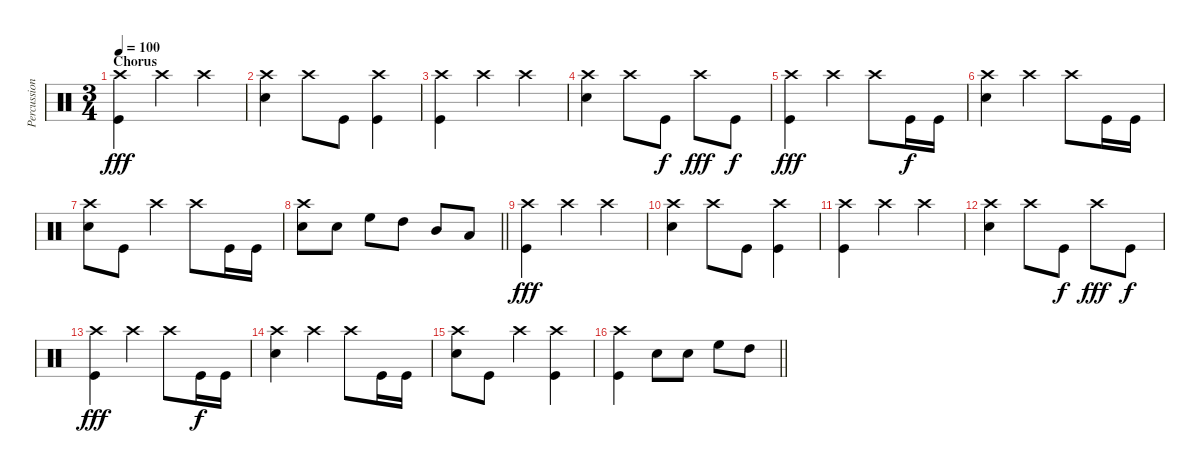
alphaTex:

\track ("Percussion" "Percussion") {instrument percussion}
\staff {score}
\articulation defaults
\ts (3 4)
\section ("" "Chorus")
\tempo 100
\clef neutral
\ks aminor
("Crash high (hit)" "Kick (hit)").4{dy fff} "Crash high (hit)".4 "Crash high (hit)".4 |
("Crash high (hit)" "Snare (hit) 2").4 "Crash high (hit)".8 "Kick (hit)".8 ("Crash high (hit)" "Kick (hit)").4 |
("Crash high (hit)" "Kick (hit)").4 "Crash high (hit)".4 "Crash high (hit)".4 |
("Crash high (hit)" "Snare (hit) 2").4 "Crash high (hit)".8 "Kick (hit)".8{dy f} "Crash high (hit)".8{dy fff} "Kick (hit)".8{dy f} |
("Crash high (hit)" "Kick (hit)").4{dy fff} "Crash high (hit)".4 "Crash high (hit)".8 "Kick (hit)".16{dy f} "Kick (hit)".16 |
("Crash high (hit)" "Snare (hit) 2").4 "Crash high (hit)".4 "Crash high (hit)".8 "Kick (hit)".16 "Kick (hit)".16 |
("Crash high (hit)" "Snare (hit) 2").8 "Kick (hit)".8 "Crash high (hit)".4 "Crash high (hit)".8 "Kick (hit)".16 "Kick (hit)".16 |
\barLineRight lightlight
("Crash high (hit)" "Snare (hit) 2").8 "Snare (hit) 2".8 "High Floor Tom (hit)".8 "High Tom (hit)".8 "Mid Tom (hit)".8 "Low Tom (hit)".8 |
\section ("" "")
("Crash high (hit)" "Kick (hit)").4{dy fff} "Crash high (hit)".4 "Crash high (hit)".4 |
("Crash high (hit)" "Snare (hit) 2").4 "Crash high (hit)".8 "Kick (hit)".8 ("Crash high (hit)" "Kick (hit)").4 |
("Crash high (hit)" "Kick (hit)").4 "Crash high (hit)".4 "Crash high (hit)".4 |
("Crash high (hit)" "Snare (hit) 2").4 "Crash high (hit)".8 "Kick (hit)".8{dy f} "Crash high (hit)".8{dy fff} "Kick (hit)".8{dy f} |
("Crash high (hit)" "Kick (hit)").4{dy fff} "Crash high (hit)".4 "Crash high (hit)".8 "Kick (hit)".16{dy f} "Kick (hit)".16 |
("Crash high (hit)" "Snare (hit) 2").4 "Crash high (hit)".4 "Crash high (hit)".8 "Kick (hit)".16 "Kick (hit)".16 |
("Crash high (hit)" "Snare (hit) 2").8 "Kick (hit)".8 "Crash high (hit)".4 ("Crash high (hit)" "Kick (hit)").4 |
\barLineRight lightlight
("Crash high (hit)" "Kick (hit)").4 "Snare (hit) 2".8 "Snare (hit) 2".8 "High Floor Tom (hit)".8 "High Tom (hit)".8
